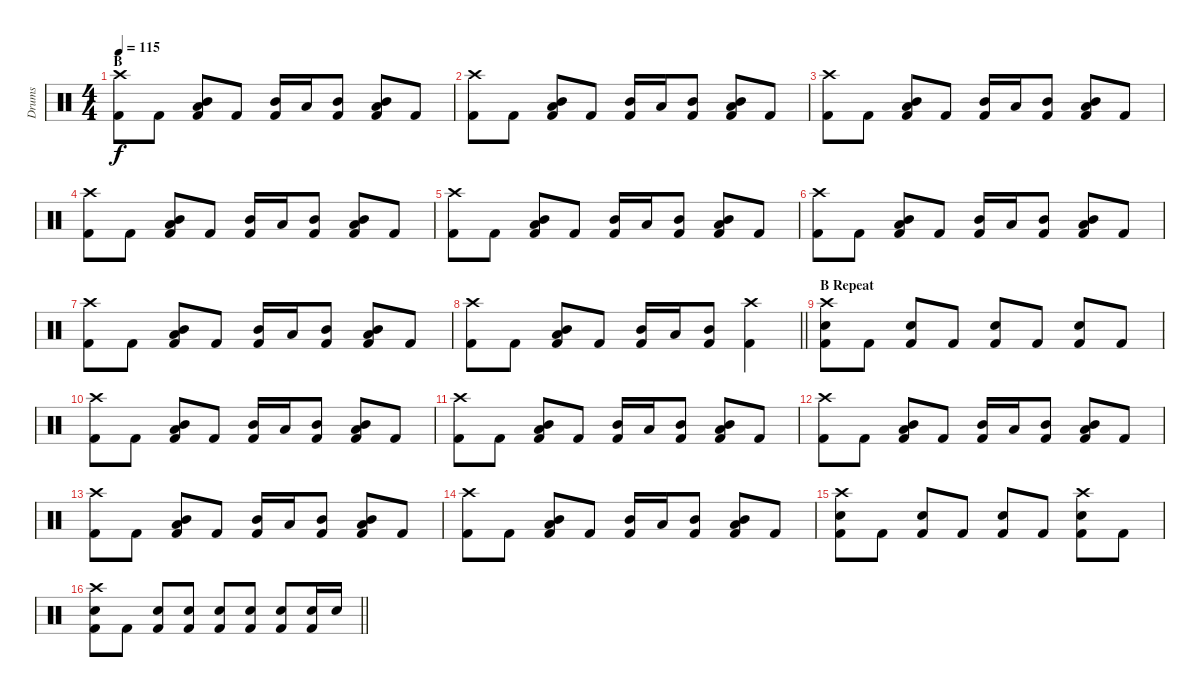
\track ("Drums" "Drums") {instrument percussion}
\staff {score}
\articulation defaults
\ts (4 4)
\section ("" "B")
\tempo 115
\clef neutral
\ks c
("Crash high (hit)" "Kick (hit) 2").8{dy f} "Kick (hit) 2".8 ("Mid Tom (hit)" "Low Tom (hit)" "Kick (hit) 2").8 "Kick (hit) 2".8 ("Mid Tom (hit)" "Kick (hit) 2").16 "Low Tom (hit)".16 ("Mid Tom (hit)" "Kick (hit) 2").8 ("Mid Tom (hit)" "Low Tom (hit)" "Kick (hit) 2").8 "Kick (hit) 2".8 |
("Crash high (hit)" "Kick (hit) 2").8 "Kick (hit) 2".8 ("Mid Tom (hit)" "Low Tom (hit)" "Kick (hit) 2").8 "Kick (hit) 2".8 ("Mid Tom (hit)" "Kick (hit) 2").16 "Low Tom (hit)".16 ("Mid Tom (hit)" "Kick (hit) 2").8 ("Mid Tom (hit)" "Low Tom (hit)" "Kick (hit) 2").8 "Kick (hit) 2".8 |
("Crash high (hit)" "Kick (hit) 2").8 "Kick (hit) 2".8 ("Mid Tom (hit)" "Low Tom (hit)" "Kick (hit) 2").8 "Kick (hit) 2".8 ("Mid Tom (hit)" "Kick (hit) 2").16 "Low Tom (hit)".16 ("Mid Tom (hit)" "Kick (hit) 2").8 ("Mid Tom (hit)" "Low Tom (hit)" "Kick (hit) 2").8 "Kick (hit) 2".8 |
("Crash high (hit)" "Kick (hit) 2").8 "Kick (hit) 2".8 ("Mid Tom (hit)" "Low Tom (hit)" "Kick (hit) 2").8 "Kick (hit) 2".8 ("Mid Tom (hit)" "Kick (hit) 2").16 "Low Tom (hit)".16 ("Mid Tom (hit)" "Kick (hit) 2").8 ("Mid Tom (hit)" "Low Tom (hit)" "Kick (hit) 2").8 "Kick (hit) 2".8 |
("Crash high (hit)" "Kick (hit) 2").8 "Kick (hit) 2".8 ("Mid Tom (hit)" "Low Tom (hit)" "Kick (hit) 2").8 "Kick (hit) 2".8 ("Mid Tom (hit)" "Kick (hit) 2").16 "Low Tom (hit)".16 ("Mid Tom (hit)" "Kick (hit) 2").8 ("Mid Tom (hit)" "Low Tom (hit)" "Kick (hit) 2").8 "Kick (hit) 2".8 |
("Crash high (hit)" "Kick (hit) 2").8 "Kick (hit) 2".8 ("Mid Tom (hit)" "Low Tom (hit)" "Kick (hit) 2").8 "Kick (hit) 2".8 ("Mid Tom (hit)" "Kick (hit) 2").16 "Low Tom (hit)".16 ("Mid Tom (hit)" "Kick (hit) 2").8 ("Mid Tom (hit)" "Low Tom (hit)" "Kick (hit) 2").8 "Kick (hit) 2".8 |
("Crash high (hit)" "Kick (hit) 2").8 "Kick (hit) 2".8 ("Mid Tom (hit)" "Low Tom (hit)" "Kick (hit) 2").8 "Kick (hit) 2".8 ("Mid Tom (hit)" "Kick (hit) 2").16 "Low Tom (hit)".16 ("Mid Tom (hit)" "Kick (hit) 2").8 ("Mid Tom (hit)" "Low Tom (hit)" "Kick (hit) 2").8 "Kick (hit) 2".8 |
\barLineRight lightlight
("Crash high (hit)" "Kick (hit) 2").8 "Kick (hit) 2".8 ("Mid Tom (hit)" "Low Tom (hit)" "Kick (hit) 2").8 "Kick (hit) 2".8 ("Mid Tom (hit)" "Kick (hit) 2").16 "Low Tom (hit)".16 ("Mid Tom (hit)" "Kick (hit) 2").8 ("Crash high (hit)" "Kick (hit) 2").4 |
\section ("" "B Repeat")
("Crash high (hit)" "Snare (hit) 2" "Kick (hit) 2").8 "Kick (hit) 2".8 ("Snare (hit) 2" "Kick (hit) 2").8 "Kick (hit) 2".8 ("Snare (hit) 2" "Kick (hit) 2").8 "Kick (hit) 2".8 ("Snare (hit) 2" "Kick (hit) 2").8 "Kick (hit) 2".8 |
("Crash high (hit)" "Kick (hit) 2").8 "Kick (hit) 2".8 ("Mid Tom (hit)" "Low Tom (hit)" "Kick (hit) 2").8 "Kick (hit) 2".8 ("Mid Tom (hit)" "Kick (hit) 2").16 "Low Tom (hit)".16 ("Mid Tom (hit)" "Kick (hit) 2").8 ("Mid Tom (hit)" "Low Tom (hit)" "Kick (hit) 2").8 "Kick (hit) 2".8 |
("Crash high (hit)" "Kick (hit) 2").8 "Kick (hit) 2".8 ("Mid Tom (hit)" "Low Tom (hit)" "Kick (hit) 2").8 "Kick (hit) 2".8 ("Mid Tom (hit)" "Kick (hit) 2").16 "Low Tom (hit)".16 ("Mid Tom (hit)" "Kick (hit) 2").8 ("Mid Tom (hit)" "Low Tom (hit)" "Kick (hit) 2").8 "Kick (hit) 2".8 |
("Crash high (hit)" "Kick (hit) 2").8 "Kick (hit) 2".8 ("Mid Tom (hit)" "Low Tom (hit)" "Kick (hit) 2").8 "Kick (hit) 2".8 ("Mid Tom (hit)" "Kick (hit) 2").16 "Low Tom (hit)".16 ("Mid Tom (hit)" "Kick (hit) 2").8 ("Mid Tom (hit)" "Low Tom (hit)" "Kick (hit) 2").8 "Kick (hit) 2".8 |
("Crash high (hit)" "Kick (hit) 2").8 "Kick (hit) 2".8 ("Mid Tom (hit)" "Low Tom (hit)" "Kick (hit) 2").8 "Kick (hit) 2".8 ("Mid Tom (hit)" "Kick (hit) 2").16 "Low Tom (hit)".16 ("Mid Tom (hit)" "Kick (hit) 2").8 ("Mid Tom (hit)" "Low Tom (hit)" "Kick (hit) 2").8 "Kick (hit) 2".8 |
("Crash high (hit)" "Kick (hit) 2").8 "Kick (hit) 2".8 ("Mid Tom (hit)" "Low Tom (hit)" "Kick (hit) 2").8 "Kick (hit) 2".8 ("Mid Tom (hit)" "Kick (hit) 2").16 "Low Tom (hit)".16 ("Mid Tom (hit)" "Kick (hit) 2").8 ("Mid Tom (hit)" "Low Tom (hit)" "Kick (hit) 2").8 "Kick (hit) 2".8 |
("Crash high (hit)" "Snare (hit) 2" "Kick (hit) 2").8 "Kick (hit) 2".8 ("Snare (hit) 2" "Kick (hit) 2").8 "Kick (hit) 2".8 ("Snare (hit) 2" "Kick (hit) 2").8 "Kick (hit) 2".8 ("Crash high (hit)" "Snare (hit) 2" "Kick (hit) 2").8 "Kick (hit) 2".8 |
\barLineRight lightlight
("Crash high (hit)" "Snare (hit) 2" "Kick (hit) 2").8 "Kick (hit) 2".8 ("Snare (hit) 2" "Kick (hit) 2").8 ("Snare (hit) 2" "Kick (hit) 2").8 ("Snare (hit) 2" "Kick (hit) 2").8 ("Snare (hit) 2" "Kick (hit) 2").8 ("Snare (hit) 2" "Kick (hit) 2").8 ("Snare (hit) 2" "Kick (hit) 2").16 "Snare (hit) 2".16
